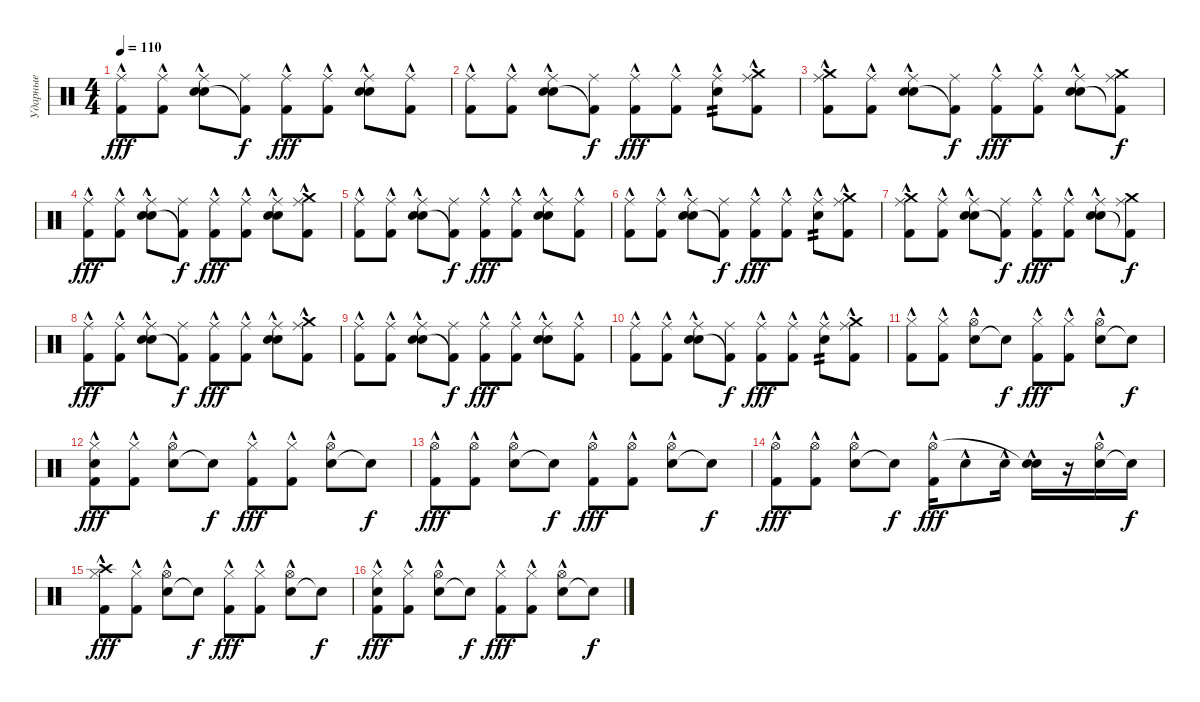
\track ("Ударные" "Ударные") {instrument percussion}
\staff {score}
\articulation defaults
\ts (4 4)
\tempo 110
\clef neutral
\ks c
("Kick (hit) 2"{hac} "Ride (middle)").8{dy fff} ("Kick (hit) 2"{hac} "Ride (middle)").8 ("Snare (hit) 2"{hac} "Electric Snare (hit)"{hac} "Ride (middle)").8 ("Kick (hit) 2"{t} "Ride (middle)").8{dy f} ("Kick (hit) 2"{hac} "Ride (middle)").8{dy fff} ("Kick (hit) 2"{hac} "Ride (middle)").8 ("Snare (hit) 2"{hac} "Electric Snare (hit)"{hac} "Ride (middle)").8 ("Kick (hit) 2"{hac} "Ride (middle)").8 |
("Kick (hit) 2"{hac} "Ride (middle)").8 ("Kick (hit) 2"{hac} "Ride (middle)").8 ("Snare (hit) 2"{hac} "Electric Snare (hit)"{hac} "Ride (middle)").8 ("Kick (hit) 2"{t} "Ride (middle)").8{dy f} ("Kick (hit) 2"{hac} "Ride (middle)").8{dy fff} ("Kick (hit) 2"{hac} "Ride (middle)").8 ("Snare (hit) 2"{hac} "Ride (middle)").8{tp 2} ("Kick (hit) 2"{hac} "Crash medium (hit)" "Ride (middle)").8 |
("Kick (hit) 2"{hac} "Crash medium (hit)" "Ride (middle)").8 ("Kick (hit) 2"{hac} "Ride (middle)").8 ("Snare (hit) 2"{hac} "Electric Snare (hit)"{hac} "Ride (middle)").8 ("Kick (hit) 2"{t} "Ride (middle)").8{dy f} ("Kick (hit) 2"{hac} "Ride (middle)").8{dy fff} ("Kick (hit) 2"{hac} "Ride (middle)").8 ("Snare (hit) 2"{hac} "Electric Snare (hit)"{hac} "Ride (middle)").8 ("Kick (hit) 2"{t} "Crash medium (hit)" "Ride (middle)").8{dy f} |
("Kick (hit) 2"{hac} "Ride (middle)").8{dy fff} ("Kick (hit) 2"{hac} "Ride (middle)").8 ("Snare (hit) 2"{hac} "Electric Snare (hit)"{hac} "Ride (middle)").8 ("Kick (hit) 2"{t} "Ride (middle)").8{dy f} ("Kick (hit) 2"{hac} "Ride (middle)").8{dy fff} ("Kick (hit) 2"{hac} "Ride (middle)").8 ("Snare (hit) 2"{hac} "Electric Snare (hit)"{hac} "Ride (middle)").8 ("Kick (hit) 2"{hac} "Crash medium (hit)" "Ride (middle)").8 |
("Kick (hit) 2"{hac} "Ride (middle)").8 ("Kick (hit) 2"{hac} "Ride (middle)").8 ("Snare (hit) 2"{hac} "Electric Snare (hit)"{hac} "Ride (middle)").8 ("Kick (hit) 2"{t} "Ride (middle)").8{dy f} ("Kick (hit) 2"{hac} "Ride (middle)").8{dy fff} ("Kick (hit) 2"{hac} "Ride (middle)").8 ("Snare (hit) 2"{hac} "Electric Snare (hit)"{hac} "Ride (middle)").8 ("Kick (hit) 2"{hac} "Ride (middle)").8 |
("Kick (hit) 2"{hac} "Ride (middle)").8 ("Kick (hit) 2"{hac} "Ride (middle)").8 ("Snare (hit) 2"{hac} "Electric Snare (hit)"{hac} "Ride (middle)").8 ("Kick (hit) 2"{t} "Ride (middle)").8{dy f} ("Kick (hit) 2"{hac} "Ride (middle)").8{dy fff} ("Kick (hit) 2"{hac} "Ride (middle)").8 ("Snare (hit) 2"{hac} "Ride (middle)").8{tp 2} ("Kick (hit) 2"{hac} "Crash medium (hit)" "Ride (middle)").8 |
("Kick (hit) 2"{hac} "Crash medium (hit)" "Ride (middle)").8 ("Kick (hit) 2"{hac} "Ride (middle)").8 ("Snare (hit) 2"{hac} "Electric Snare (hit)"{hac} "Ride (middle)").8 ("Kick (hit) 2"{t} "Ride (middle)").8{dy f} ("Kick (hit) 2"{hac} "Ride (middle)").8{dy fff} ("Kick (hit) 2"{hac} "Ride (middle)").8 ("Snare (hit) 2"{hac} "Electric Snare (hit)"{hac} "Ride (middle)").8 ("Kick (hit) 2"{t} "Crash medium (hit)" "Ride (middle)").8{dy f} |
("Kick (hit) 2"{hac} "Ride (middle)").8{dy fff} ("Kick (hit) 2"{hac} "Ride (middle)").8 ("Snare (hit) 2"{hac} "Electric Snare (hit)"{hac} "Ride (middle)").8 ("Kick (hit) 2"{t} "Ride (middle)").8{dy f} ("Kick (hit) 2"{hac} "Ride (middle)").8{dy fff} ("Kick (hit) 2"{hac} "Ride (middle)").8 ("Snare (hit) 2"{hac} "Electric Snare (hit)"{hac} "Ride (middle)").8 ("Kick (hit) 2"{hac} "Crash medium (hit)" "Ride (middle)").8 |
("Kick (hit) 2"{hac} "Ride (middle)").8 ("Kick (hit) 2"{hac} "Ride (middle)").8 ("Snare (hit) 2"{hac} "Electric Snare (hit)"{hac} "Ride (middle)").8 ("Kick (hit) 2"{t} "Ride (middle)").8{dy f} ("Kick (hit) 2"{hac} "Ride (middle)").8{dy fff} ("Kick (hit) 2"{hac} "Ride (middle)").8 ("Snare (hit) 2"{hac} "Electric Snare (hit)"{hac} "Ride (middle)").8 ("Kick (hit) 2"{hac} "Ride (middle)").8 |
("Kick (hit) 2"{hac} "Ride (middle)").8 ("Kick (hit) 2"{hac} "Ride (middle)").8 ("Snare (hit) 2"{hac} "Electric Snare (hit)"{hac} "Ride (middle)").8 ("Kick (hit) 2"{t} "Ride (middle)").8{dy f} ("Kick (hit) 2"{hac} "Ride (middle)").8{dy fff} ("Kick (hit) 2"{hac} "Ride (middle)").8 ("Snare (hit) 2"{hac} "Ride (middle)").8{tp 2} ("Kick (hit) 2"{hac} "Crash medium (hit)" "Ride (middle)").8 |
("Kick (hit) 2"{hac} "Hi-Hat (closed)").8 ("Kick (hit) 2"{hac} "Hi-Hat (closed)").8 ("Snare (hit) 2"{hac} "Hi-Hat (open)").8 "Snare (hit)"{t}.8{dy f} ("Kick (hit) 2"{hac} "Hi-Hat (closed)").8{dy fff} ("Kick (hit) 2"{hac} "Hi-Hat (closed)").8 ("Snare (hit) 2"{hac} "Hi-Hat (open)").8 "Snare (hit)"{t}.8{dy f} |
("Kick (hit) 2"{hac} "Snare (hit)" "Hi-Hat (closed)").8{dy fff} ("Kick (hit) 2"{hac} "Hi-Hat (closed)").8 ("Snare (hit) 2"{hac} "Hi-Hat (open)").8 "Snare (hit)"{t}.8{dy f} ("Kick (hit) 2"{hac} "Hi-Hat (closed)").8{dy fff} ("Kick (hit) 2"{hac} "Hi-Hat (closed)").8 ("Snare (hit) 2"{hac} "Hi-Hat (open)").8 "Snare (hit)"{t}.8{dy f} |
("Kick (hit) 2"{hac} "Hi-Hat (open)").8{dy fff} ("Kick (hit) 2"{hac} "Hi-Hat (open)").8 ("Snare (hit) 2"{hac} "Hi-Hat (open)").8 "Snare (hit)"{t}.8{dy f} ("Kick (hit) 2"{hac} "Hi-Hat (open)").8{dy fff} ("Kick (hit) 2"{hac} "Hi-Hat (open)").8 ("Snare (hit) 2"{hac} "Hi-Hat (open)").8 "Snare (hit)"{t}.8{dy f} |
("Kick (hit) 2"{hac} "Hi-Hat (open)").8{dy fff} ("Kick (hit) 2"{hac} "Hi-Hat (open)").8 ("Snare (hit) 2"{hac} "Hi-Hat (open)").8 "Snare (hit)"{t}.8{dy f} ("Kick (hit) 2"{hac} "Hi-Hat (open)").16{dy fff} "Snare (hit) 2"{hac}.8 "Snare (hit) 2"{hac}.16 ("Snare (hit) 2"{hac} "Snare (hit)"{t}).16 r.16 ("Snare (hit) 2"{hac} "Hi-Hat (open)").16 "Snare (hit)"{t}.16{dy f} |
("Kick (hit) 2"{hac} "Crash high (hit)" "Hi-Hat (closed)").8{dy fff} ("Kick (hit) 2"{hac} "Hi-Hat (closed)").8 ("Snare (hit) 2"{hac} "Hi-Hat (open)").8 "Snare (hit)"{t}.8{dy f} ("Kick (hit) 2"{hac} "Hi-Hat (closed)").8{dy fff} ("Kick (hit) 2"{hac} "Hi-Hat (closed)").8 ("Snare (hit) 2"{hac} "Hi-Hat (open)").8 "Snare (hit)"{t}.8{dy f} |
("Kick (hit) 2"{hac} "Snare (hit)" "Hi-Hat (closed)").8{dy fff} ("Kick (hit) 2"{hac} "Hi-Hat (closed)").8 ("Snare (hit) 2"{hac} "Hi-Hat (open)").8 "Snare (hit)"{t}.8{dy f} ("Kick (hit) 2"{hac} "Hi-Hat (closed)").8{dy fff} ("Kick (hit) 2"{hac} "Hi-Hat (closed)").8 ("Snare (hit) 2"{hac} "Hi-Hat (open)").8 "Snare (hit)"{t}.8{dy f}
